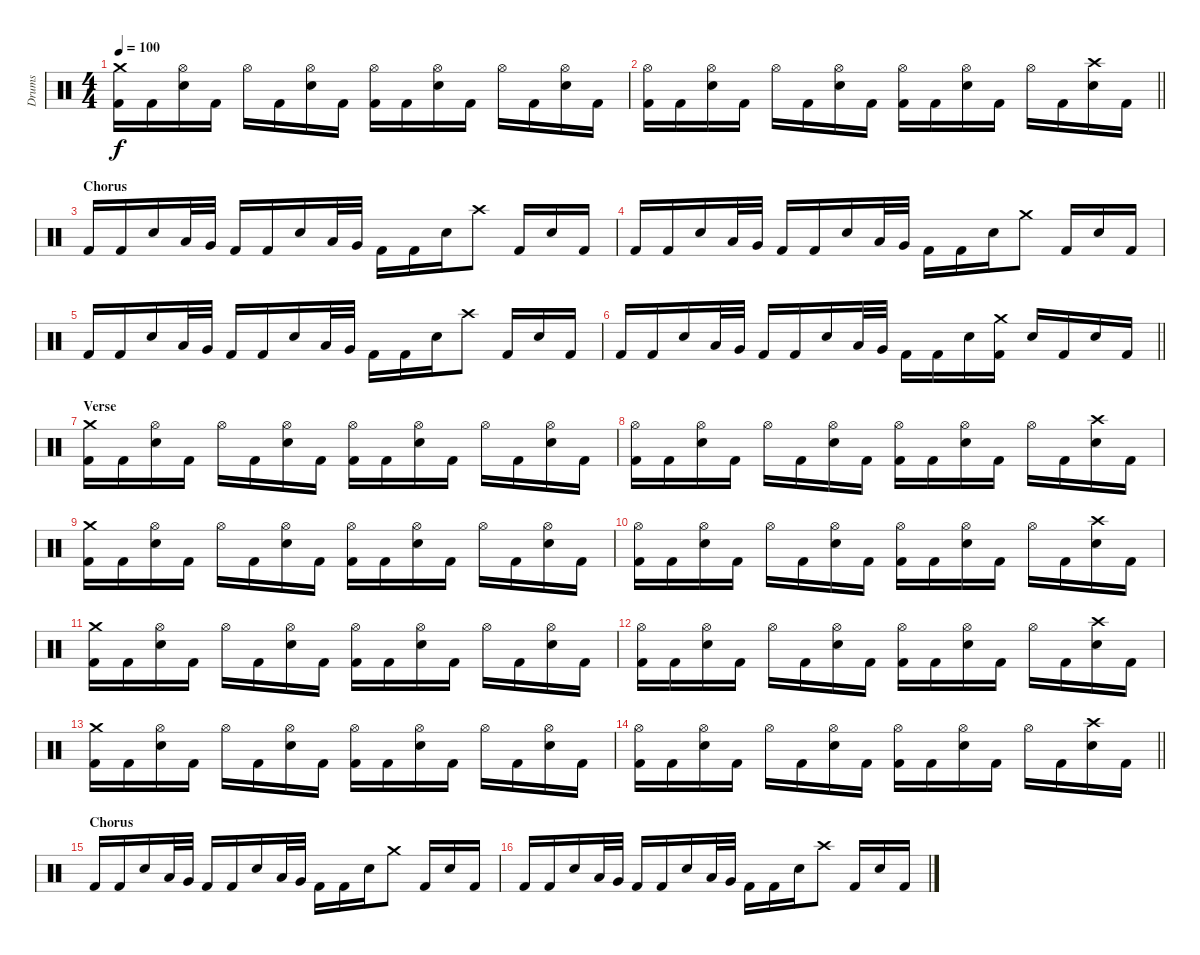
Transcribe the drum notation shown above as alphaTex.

\track ("Drums" "Drums") {instrument percussion}
\staff {score}
\articulation defaults
\ts (4 4)
\tempo 100
\clef neutral
\ks c
("Crash medium (hit)" "Kick (hit) 2").16{dy f} "Kick (hit) 2".16 ("Hi-Hat (open)" "Electric Snare (hit)").16 "Kick (hit) 2".16 "Hi-Hat (open)".16 "Kick (hit) 2".16 ("Hi-Hat (open)" "Electric Snare (hit)").16 "Kick (hit) 2".16 ("Hi-Hat (open)" "Kick (hit) 2").16 "Kick (hit) 2".16 ("Hi-Hat (open)" "Electric Snare (hit)").16 "Kick (hit) 2".16 "Hi-Hat (open)".16 "Kick (hit) 2".16 ("Hi-Hat (open)" "Electric Snare (hit)").16 "Kick (hit) 2".16 |
\barLineRight lightlight
("Hi-Hat (open)" "Kick (hit) 2").16 "Kick (hit) 2".16 ("Hi-Hat (open)" "Electric Snare (hit)").16 "Kick (hit) 2".16 "Hi-Hat (open)".16 "Kick (hit) 2".16 ("Hi-Hat (open)" "Electric Snare (hit)").16 "Kick (hit) 2".16 ("Hi-Hat (open)" "Kick (hit) 2").16 "Kick (hit) 2".16 ("Hi-Hat (open)" "Electric Snare (hit)").16 "Kick (hit) 2".16 "Hi-Hat (open)".16 "Kick (hit) 2".16 ("Crash high (hit)" "Electric Snare (hit)").16 "Kick (hit) 2".16 |
\section ("" "Chorus")
"Kick (hit) 2".16 "Kick (hit) 2".16 "Electric Snare (hit)".16 "Low Tom (hit)".32 "Very Low Tom (hit)".32 "Kick (hit) 2".16 "Kick (hit) 2".16 "Electric Snare (hit)".16 "Low Tom (hit)".32 "Very Low Tom (hit)".32 "Kick (hit) 2".16 "Kick (hit) 2".16 "Electric Snare (hit)".16 "Crash high (hit)".8 "Kick (hit) 2".16 "Electric Snare (hit)".16 "Kick (hit) 2".16 |
"Kick (hit) 2".16 "Kick (hit) 2".16 "Electric Snare (hit)".16 "Low Tom (hit)".32 "Very Low Tom (hit)".32 "Kick (hit) 2".16 "Kick (hit) 2".16 "Electric Snare (hit)".16 "Low Tom (hit)".32 "Very Low Tom (hit)".32 "Kick (hit) 2".16 "Kick (hit) 2".16 "Electric Snare (hit)".16 "Crash medium (hit)".8 "Kick (hit) 2".16 "Electric Snare (hit)".16 "Kick (hit) 2".16 |
"Kick (hit) 2".16 "Kick (hit) 2".16 "Electric Snare (hit)".16 "Low Tom (hit)".32 "Very Low Tom (hit)".32 "Kick (hit) 2".16 "Kick (hit) 2".16 "Electric Snare (hit)".16 "Low Tom (hit)".32 "Very Low Tom (hit)".32 "Kick (hit) 2".16 "Kick (hit) 2".16 "Electric Snare (hit)".16 "Crash high (hit)".8 "Kick (hit) 2".16 "Electric Snare (hit)".16 "Kick (hit) 2".16 |
\barLineRight lightlight "Kick (hit) 2".16 "Kick (hit) 2".16 "Electric Snare (hit)".16 "Low Tom (hit)".32 "Very Low Tom (hit)".32 "Kick (hit) 2".16 "Kick (hit) 2".16 "Electric Snare (hit)".16 "Low Tom (hit)".32 "Very Low Tom (hit)".32 "Kick (hit) 2".16 "Kick (hit) 2".16 "Electric Snare (hit)".16
("Crash medium (hit)" "Kick (hit) 2").16 "Electric Snare (hit)".16 "Kick (hit) 2".16 "Electric Snare (hit)".16 "Kick (hit) 2".16 |
\section ("" "Verse")
("Crash medium (hit)" "Kick (hit) 2").16 "Kick (hit) 2".16 ("Hi-Hat (open)" "Electric Snare (hit)").16 "Kick (hit) 2".16 "Hi-Hat (open)".16 "Kick (hit) 2".16 ("Hi-Hat (open)" "Electric Snare (hit)").16 "Kick (hit) 2".16 ("Hi-Hat (open)" "Kick (hit) 2").16 "Kick (hit) 2".16 ("Hi-Hat (open)" "Electric Snare (hit)").16 "Kick (hit) 2".16 "Hi-Hat (open)".16 "Kick (hit) 2".16 ("Hi-Hat (open)" "Electric Snare (hit)").16 "Kick (hit) 2".16 |
("Hi-Hat (open)" "Kick (hit) 2").16 "Kick (hit) 2".16 ("Hi-Hat (open)" "Electric Snare (hit)").16 "Kick (hit) 2".16 "Hi-Hat (open)".16 "Kick (hit) 2".16 ("Hi-Hat (open)" "Electric Snare (hit)").16 "Kick (hit) 2".16 ("Hi-Hat (open)" "Kick (hit) 2").16 "Kick (hit) 2".16 ("Hi-Hat (open)" "Electric Snare (hit)").16 "Kick (hit) 2".16 "Hi-Hat (open)".16 "Kick (hit) 2".16 ("Crash high (hit)" "Electric Snare (hit)").16 "Kick (hit) 2".16 |
("Crash medium (hit)" "Kick (hit) 2").16 "Kick (hit) 2".16 ("Hi-Hat (open)" "Electric Snare (hit)").16 "Kick (hit) 2".16 "Hi-Hat (open)".16 "Kick (hit) 2".16 ("Hi-Hat (open)" "Electric Snare (hit)").16 "Kick (hit) 2".16 ("Hi-Hat (open)" "Kick (hit) 2").16 "Kick (hit) 2".16 ("Hi-Hat (open)" "Electric Snare (hit)").16 "Kick (hit) 2".16 "Hi-Hat (open)".16 "Kick (hit) 2".16 ("Hi-Hat (open)" "Electric Snare (hit)").16 "Kick (hit) 2".16 |
("Hi-Hat (open)" "Kick (hit) 2").16 "Kick (hit) 2".16 ("Hi-Hat (open)" "Electric Snare (hit)").16 "Kick (hit) 2".16 "Hi-Hat (open)".16 "Kick (hit) 2".16 ("Hi-Hat (open)" "Electric Snare (hit)").16 "Kick (hit) 2".16 ("Hi-Hat (open)" "Kick (hit) 2").16 "Kick (hit) 2".16 ("Hi-Hat (open)" "Electric Snare (hit)").16 "Kick (hit) 2".16 "Hi-Hat (open)".16 "Kick (hit) 2".16 ("Crash high (hit)" "Electric Snare (hit)").16 "Kick (hit) 2".16 |
("Crash medium (hit)" "Kick (hit) 2").16 "Kick (hit) 2".16 ("Hi-Hat (open)" "Electric Snare (hit)").16 "Kick (hit) 2".16 "Hi-Hat (open)".16 "Kick (hit) 2".16 ("Hi-Hat (open)" "Electric Snare (hit)").16 "Kick (hit) 2".16 ("Hi-Hat (open)" "Kick (hit) 2").16 "Kick (hit) 2".16 ("Hi-Hat (open)" "Electric Snare (hit)").16 "Kick (hit) 2".16 "Hi-Hat (open)".16 "Kick (hit) 2".16 ("Hi-Hat (open)" "Electric Snare (hit)").16 "Kick (hit) 2".16 |
("Hi-Hat (open)" "Kick (hit) 2").16 "Kick (hit) 2".16 ("Hi-Hat (open)" "Electric Snare (hit)").16 "Kick (hit) 2".16 "Hi-Hat (open)".16 "Kick (hit) 2".16 ("Hi-Hat (open)" "Electric Snare (hit)").16 "Kick (hit) 2".16 ("Hi-Hat (open)" "Kick (hit) 2").16 "Kick (hit) 2".16 ("Hi-Hat (open)" "Electric Snare (hit)").16 "Kick (hit) 2".16 "Hi-Hat (open)".16 "Kick (hit) 2".16 ("Crash high (hit)" "Electric Snare (hit)").16 "Kick (hit) 2".16 |
("Crash medium (hit)" "Kick (hit) 2").16 "Kick (hit) 2".16 ("Hi-Hat (open)" "Electric Snare (hit)").16 "Kick (hit) 2".16 "Hi-Hat (open)".16 "Kick (hit) 2".16 ("Hi-Hat (open)" "Electric Snare (hit)").16 "Kick (hit) 2".16 ("Hi-Hat (open)" "Kick (hit) 2").16 "Kick (hit) 2".16 ("Hi-Hat (open)" "Electric Snare (hit)").16 "Kick (hit) 2".16 "Hi-Hat (open)".16 "Kick (hit) 2".16 ("Hi-Hat (open)" "Electric Snare (hit)").16 "Kick (hit) 2".16 |
\barLineRight lightlight
("Hi-Hat (open)" "Kick (hit) 2").16 "Kick (hit) 2".16 ("Hi-Hat (open)" "Electric Snare (hit)").16 "Kick (hit) 2".16 "Hi-Hat (open)".16 "Kick (hit) 2".16 ("Hi-Hat (open)" "Electric Snare (hit)").16 "Kick (hit) 2".16 ("Hi-Hat (open)" "Kick (hit) 2").16 "Kick (hit) 2".16 ("Hi-Hat (open)" "Electric Snare (hit)").16 "Kick (hit) 2".16 "Hi-Hat (open)".16 "Kick (hit) 2".16 ("Crash high (hit)" "Electric Snare (hit)").16 "Kick (hit) 2".16 |
\section ("" "Chorus")
"Kick (hit) 2".16 "Kick (hit) 2".16 "Electric Snare (hit)".16 "Low Tom (hit)".32 "Very Low Tom (hit)".32 "Kick (hit) 2".16 "Kick (hit) 2".16 "Electric Snare (hit)".16 "Low Tom (hit)".32 "Very Low Tom (hit)".32 "Kick (hit) 2".16 "Kick (hit) 2".16 "Electric Snare (hit)".16 "Crash medium (hit)".8 "Kick (hit) 2".16 "Electric Snare (hit)".16 "Kick (hit) 2".16 |
"Kick (hit) 2".16 "Kick (hit) 2".16 "Electric Snare (hit)".16 "Low Tom (hit)".32 "Very Low Tom (hit)".32 "Kick (hit) 2".16 "Kick (hit) 2".16 "Electric Snare (hit)".16 "Low Tom (hit)".32 "Very Low Tom (hit)".32 "Kick (hit) 2".16 "Kick (hit) 2".16 "Electric Snare (hit)".16 "Crash high (hit)".8 "Kick (hit) 2".16 "Electric Snare (hit)".16 "Kick (hit) 2".16
